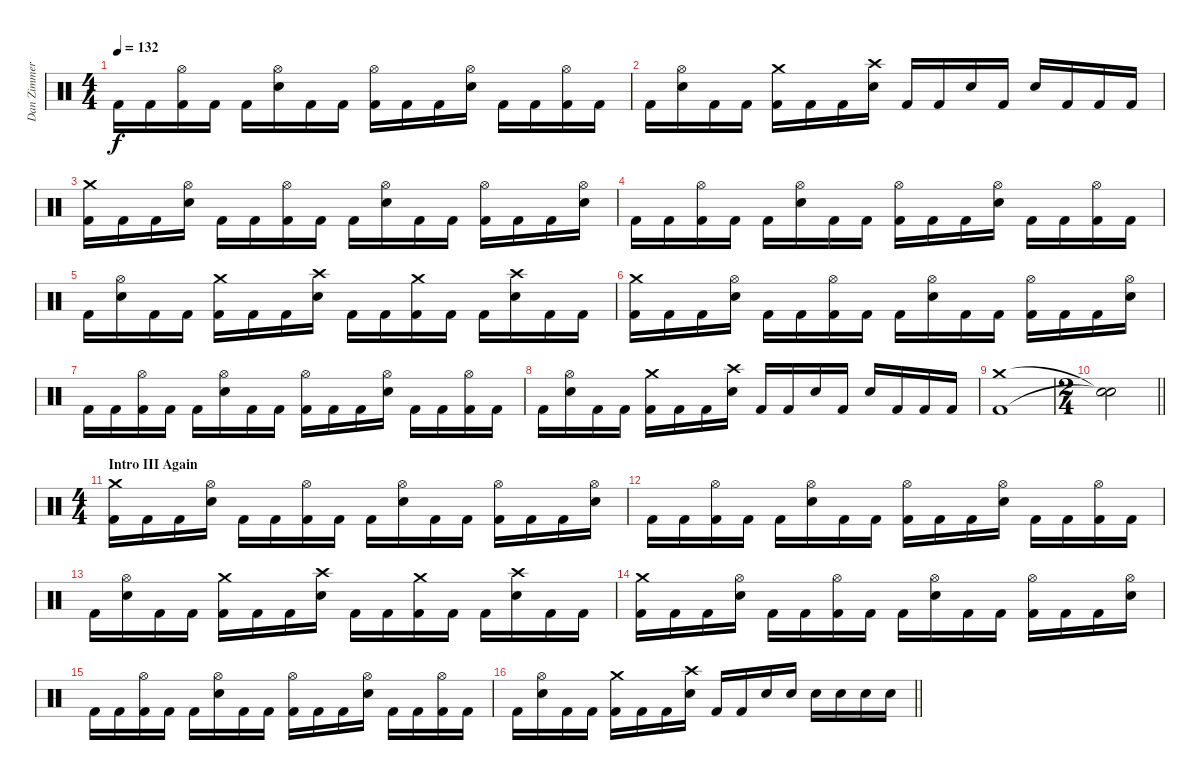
\track ("Dan Zimmermann" "Dan Zimmer") {instrument percussion}
\staff {score}
\articulation defaults
\ts (4 4)
\tempo 132
\clef neutral
\ks c "Kick (hit) 2".16{dy f} "Kick (hit) 2".16
("Hi-Hat (open)" "Kick (hit) 2").16 "Kick (hit) 2".16 "Kick (hit) 2".16 ("Hi-Hat (open)" "Electric Snare (hit)").16 "Kick (hit) 2".16 "Kick (hit) 2".16 ("Hi-Hat (open)" "Kick (hit) 2").16 "Kick (hit) 2".16 "Kick (hit) 2".16 ("Hi-Hat (open)" "Electric Snare (hit)").16 "Kick (hit) 2".16 "Kick (hit) 2".16 ("Hi-Hat (open)" "Kick (hit) 2").16 "Kick (hit) 2".16 |
"Kick (hit) 2".16 ("Hi-Hat (open)" "Electric Snare (hit)").16 "Kick (hit) 2".16 "Kick (hit) 2".16 ("Crash medium (hit)" "Kick (hit) 2").16 "Kick (hit) 2".16 "Kick (hit) 2".16 ("Crash high (hit)" "Electric Snare (hit)").16 "Kick (hit) 2".16 "Kick (hit) 2".16 "Electric Snare (hit)".16 "Kick (hit) 2".16 "Electric Snare (hit)".16 "Kick (hit) 2".16 "Kick (hit) 2".16 "Kick (hit) 2".16 |
("Crash medium (hit)" "Kick (hit) 2").16 "Kick (hit) 2".16 "Kick (hit) 2".16 ("Hi-Hat (open)" "Electric Snare (hit)").16 "Kick (hit) 2".16 "Kick (hit) 2".16 ("Hi-Hat (open)" "Kick (hit) 2").16 "Kick (hit) 2".16 "Kick (hit) 2".16 ("Hi-Hat (open)" "Electric Snare (hit)").16 "Kick (hit) 2".16 "Kick (hit) 2".16 ("Hi-Hat (open)" "Kick (hit) 2").16 "Kick (hit) 2".16 "Kick (hit) 2".16 ("Hi-Hat (open)" "Electric Snare (hit)").16 |
"Kick (hit) 2".16 "Kick (hit) 2".16 ("Hi-Hat (open)" "Kick (hit) 2").16 "Kick (hit) 2".16 "Kick (hit) 2".16 ("Hi-Hat (open)" "Electric Snare (hit)").16 "Kick (hit) 2".16 "Kick (hit) 2".16 ("Hi-Hat (open)" "Kick (hit) 2").16 "Kick (hit) 2".16 "Kick (hit) 2".16 ("Hi-Hat (open)" "Electric Snare (hit)").16 "Kick (hit) 2".16 "Kick (hit) 2".16 ("Hi-Hat (open)" "Kick (hit) 2").16 "Kick (hit) 2".16 |
"Kick (hit) 2".16 ("Hi-Hat (open)" "Electric Snare (hit)").16 "Kick (hit) 2".16 "Kick (hit) 2".16 ("Crash medium (hit)" "Kick (hit) 2").16 "Kick (hit) 2".16 "Kick (hit) 2".16 ("Crash high (hit)" "Electric Snare (hit)").16 "Kick (hit) 2".16 "Kick (hit) 2".16 ("Crash medium (hit)" "Kick (hit) 2").16 "Kick (hit) 2".16 "Kick (hit) 2".16 ("Crash high (hit)" "Electric Snare (hit)").16 "Kick (hit) 2".16 "Kick (hit) 2".16 |
("Crash medium (hit)" "Kick (hit) 2").16 "Kick (hit) 2".16 "Kick (hit) 2".16 ("Hi-Hat (open)" "Electric Snare (hit)").16 "Kick (hit) 2".16 "Kick (hit) 2".16 ("Hi-Hat (open)" "Kick (hit) 2").16 "Kick (hit) 2".16 "Kick (hit) 2".16 ("Hi-Hat (open)" "Electric Snare (hit)").16 "Kick (hit) 2".16 "Kick (hit) 2".16 ("Hi-Hat (open)" "Kick (hit) 2").16 "Kick (hit) 2".16 "Kick (hit) 2".16 ("Hi-Hat (open)" "Electric Snare (hit)").16 |
"Kick (hit) 2".16 "Kick (hit) 2".16 ("Hi-Hat (open)" "Kick (hit) 2").16 "Kick (hit) 2".16 "Kick (hit) 2".16 ("Hi-Hat (open)" "Electric Snare (hit)").16 "Kick (hit) 2".16 "Kick (hit) 2".16 ("Hi-Hat (open)" "Kick (hit) 2").16 "Kick (hit) 2".16 "Kick (hit) 2".16 ("Hi-Hat (open)" "Electric Snare (hit)").16 "Kick (hit) 2".16 "Kick (hit) 2".16 ("Hi-Hat (open)" "Kick (hit) 2").16 "Kick (hit) 2".16 |
"Kick (hit) 2".16 ("Hi-Hat (open)" "Electric Snare (hit)").16 "Kick (hit) 2".16 "Kick (hit) 2".16 ("Crash medium (hit)" "Kick (hit) 2").16 "Kick (hit) 2".16 "Kick (hit) 2".16 ("Crash high (hit)" "Electric Snare (hit)").16 "Kick (hit) 2".16 "Kick (hit) 2".16 "Electric Snare (hit)".16 "Kick (hit) 2".16 "Electric Snare (hit)".16 "Kick (hit) 2".16 "Kick (hit) 2".16 "Kick (hit) 2".16 |
("Crash medium (hit)" "Kick (hit) 2").1 |
\ts (2 4)
\barLineRight lightlight
("Snare (hit)"{t} "Snare (hit)"{t}).2 |
\ts (4 4)
\section ("" "Intro III Again")
("Crash medium (hit)" "Kick (hit) 2").16 "Kick (hit) 2".16 "Kick (hit) 2".16 ("Hi-Hat (open)" "Electric Snare (hit)").16 "Kick (hit) 2".16 "Kick (hit) 2".16 ("Hi-Hat (open)" "Kick (hit) 2").16 "Kick (hit) 2".16 "Kick (hit) 2".16 ("Hi-Hat (open)" "Electric Snare (hit)").16 "Kick (hit) 2".16 "Kick (hit) 2".16 ("Hi-Hat (open)" "Kick (hit) 2").16 "Kick (hit) 2".16 "Kick (hit) 2".16 ("Hi-Hat (open)" "Electric Snare (hit)").16 |
"Kick (hit) 2".16 "Kick (hit) 2".16 ("Hi-Hat (open)" "Kick (hit) 2").16 "Kick (hit) 2".16 "Kick (hit) 2".16 ("Hi-Hat (open)" "Electric Snare (hit)").16 "Kick (hit) 2".16 "Kick (hit) 2".16 ("Hi-Hat (open)" "Kick (hit) 2").16 "Kick (hit) 2".16 "Kick (hit) 2".16 ("Hi-Hat (open)" "Electric Snare (hit)").16 "Kick (hit) 2".16 "Kick (hit) 2".16 ("Hi-Hat (open)" "Kick (hit) 2").16 "Kick (hit) 2".16 |
"Kick (hit) 2".16 ("Hi-Hat (open)" "Electric Snare (hit)").16 "Kick (hit) 2".16 "Kick (hit) 2".16 ("Crash medium (hit)" "Kick (hit) 2").16 "Kick (hit) 2".16 "Kick (hit) 2".16 ("Crash high (hit)" "Electric Snare (hit)").16 "Kick (hit) 2".16 "Kick (hit) 2".16 ("Crash medium (hit)" "Kick (hit) 2").16 "Kick (hit) 2".16 "Kick (hit) 2".16 ("Crash high (hit)" "Electric Snare (hit)").16 "Kick (hit) 2".16 "Kick (hit) 2".16 |
("Crash medium (hit)" "Kick (hit) 2").16 "Kick (hit) 2".16 "Kick (hit) 2".16 ("Hi-Hat (open)" "Electric Snare (hit)").16 "Kick (hit) 2".16 "Kick (hit) 2".16 ("Hi-Hat (open)" "Kick (hit) 2").16 "Kick (hit) 2".16 "Kick (hit) 2".16 ("Hi-Hat (open)" "Electric Snare (hit)").16 "Kick (hit) 2".16 "Kick (hit) 2".16 ("Hi-Hat (open)" "Kick (hit) 2").16 "Kick (hit) 2".16 "Kick (hit) 2".16 ("Hi-Hat (open)" "Electric Snare (hit)").16 |
"Kick (hit) 2".16 "Kick (hit) 2".16 ("Hi-Hat (open)" "Kick (hit) 2").16 "Kick (hit) 2".16 "Kick (hit) 2".16 ("Hi-Hat (open)" "Electric Snare (hit)").16 "Kick (hit) 2".16 "Kick (hit) 2".16 ("Hi-Hat (open)" "Kick (hit) 2").16 "Kick (hit) 2".16 "Kick (hit) 2".16 ("Hi-Hat (open)" "Electric Snare (hit)").16 "Kick (hit) 2".16 "Kick (hit) 2".16 ("Hi-Hat (open)" "Kick (hit) 2").16 "Kick (hit) 2".16 |
\barLineRight lightlight "Kick (hit) 2".16
("Hi-Hat (open)" "Electric Snare (hit)").16 "Kick (hit) 2".16 "Kick (hit) 2".16 ("Crash medium (hit)" "Kick (hit) 2").16 "Kick (hit) 2".16 "Kick (hit) 2".16 ("Crash high (hit)" "Electric Snare (hit)").16 "Kick (hit) 2".16 "Kick (hit) 2".16 "Electric Snare (hit)".16 "Electric Snare (hit)".16 "Electric Snare (hit)".16 "Electric Snare (hit)".16 "Electric Snare (hit)".16 "Electric Snare (hit)".16
